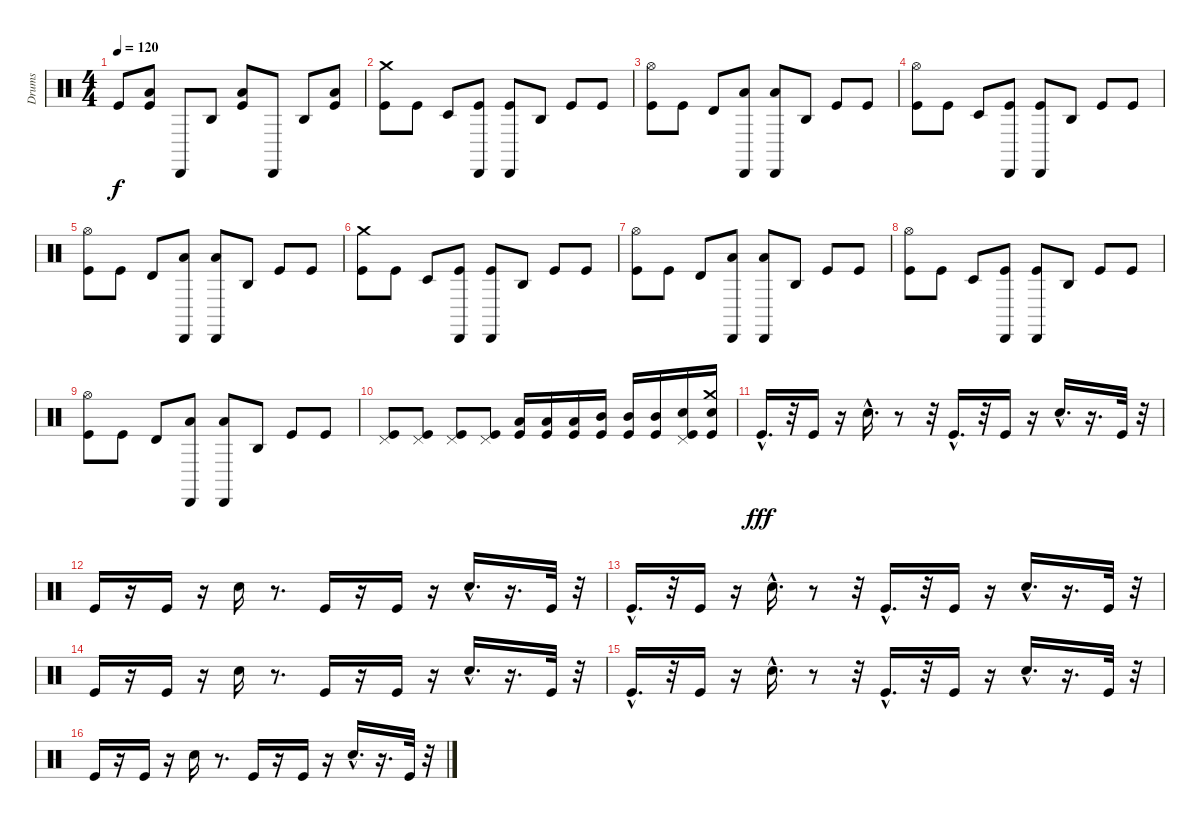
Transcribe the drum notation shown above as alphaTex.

\track ("Drums" "Drums") {instrument percussion}
\staff {score}
\articulation defaults
\ts (4 4)
\tempo 120
\clef neutral
\ks c "Kick (hit)".8{dy f}
("Kick (hit)" "Low Tom (hit)").8 "Cabasa (hit)".8 "Agogo high (hit)".8 ("Kick (hit)" "Low Tom (hit)").8 "Cabasa (hit)".8 "Agogo high (hit)".8 ("Kick (hit)" "Low Tom (hit)").8 |
("Kick (hit)" "Crash medium (hit)").8 "Kick (hit)".8 "Timbale low (hit)".8 ("Cabasa (hit)" "Kick (hit)").8 ("Cabasa (hit)" "Kick (hit)").8 "Agogo high (hit)".8 "Kick (hit)".8 "Kick (hit)".8 |
("Kick (hit)" "Hi-Hat (open)").8 "Kick (hit)".8 "Timbale high (hit)".8 ("Cabasa (hit)" "Low Tom (hit)").8 ("Cabasa (hit)" "Low Tom (hit)").8 "Agogo high (hit)".8 "Kick (hit)".8 "Kick (hit)".8 |
("Kick (hit)" "Hi-Hat (open)").8 "Kick (hit)".8 "Timbale low (hit)".8 ("Cabasa (hit)" "Kick (hit)").8 ("Cabasa (hit)" "Kick (hit)").8 "Agogo high (hit)".8 "Kick (hit)".8 "Kick (hit)".8 |
("Kick (hit)" "Hi-Hat (open)").8 "Kick (hit)".8 "Timbale high (hit)".8 ("Cabasa (hit)" "Low Tom (hit)").8 ("Cabasa (hit)" "Low Tom (hit)").8 "Agogo high (hit)".8 "Kick (hit)".8 "Kick (hit)".8 |
("Kick (hit)" "Crash medium (hit)").8 "Kick (hit)".8 "Timbale low (hit)".8 ("Cabasa (hit)" "Kick (hit)").8 ("Cabasa (hit)" "Kick (hit)").8 "Agogo high (hit)".8 "Kick (hit)".8 "Kick (hit)".8 |
("Kick (hit)" "Hi-Hat (open)").8 "Kick (hit)".8 "Timbale high (hit)".8 ("Cabasa (hit)" "Low Tom (hit)").8 ("Cabasa (hit)" "Low Tom (hit)").8 "Agogo high (hit)".8 "Kick (hit)".8 "Kick (hit)".8 |
("Kick (hit)" "Hi-Hat (open)").8 "Kick (hit)".8 "Timbale low (hit)".8 ("Cabasa (hit)" "Kick (hit)").8 ("Cabasa (hit)" "Kick (hit)").8 "Agogo high (hit)".8 "Kick (hit)".8 "Kick (hit)".8 |
("Kick (hit)" "Hi-Hat (open)").8 "Kick (hit)".8 "Timbale high (hit)".8 ("Cabasa (hit)" "Low Tom (hit)").8 ("Cabasa (hit)" "Low Tom (hit)").8 "Agogo high (hit)".8 "Kick (hit)".8 "Kick (hit)".8 |
("Kick (hit)" "Pedal Hi-Hat (hit)").8 ("Kick (hit)" "Pedal Hi-Hat (hit)").8 ("Kick (hit)" "Pedal Hi-Hat (hit)").8 ("Kick (hit)" "Pedal Hi-Hat (hit)").8 ("Kick (hit)" "Low Tom (hit)").16 ("Kick (hit)" "Low Tom (hit)").16 ("Kick (hit)" "Low Tom (hit)").16 ("Kick (hit)" "Mid Tom (hit)").16 ("Kick (hit)" "Mid Tom (hit)").16 ("Kick (hit)" "Mid Tom (hit)").16 ("Kick (hit)" "Snare (hit) 2" "Pedal Hi-Hat (hit)").16 ("Kick (hit)" "Snare (hit) 2" "Crash medium (hit)").16 |
"Kick (hit)"{hac}.16{d dy fff} r.32 "Kick (hit)".16 r.16 "Electric Snare (hit)"{hac}.16{d} r.8 r.32 "Kick (hit)"{hac}.16{d} r.32 "Kick (hit)".16 r.16 "Electric Snare (hit)"{hac}.16{d} r.16{d} "Kick (hit)".32 r.32 |
"Kick (hit)".16 r.16 "Kick (hit)".16 r.16 "Electric Snare (hit)".16 r.8{d} "Kick (hit)".16 r.16 "Kick (hit)".16 r.16 "Electric Snare (hit)"{hac}.16{d} r.16{d} "Kick (hit)".32 r.32 |
"Kick (hit)"{hac}.16{d} r.32 "Kick (hit)".16 r.16 "Electric Snare (hit)"{hac}.16{d} r.8 r.32 "Kick (hit)"{hac}.16{d} r.32 "Kick (hit)".16 r.16 "Electric Snare (hit)"{hac}.16{d} r.16{d} "Kick (hit)".32 r.32 |
"Kick (hit)".16 r.16 "Kick (hit)".16 r.16 "Electric Snare (hit)".16 r.8{d} "Kick (hit)".16 r.16 "Kick (hit)".16 r.16 "Electric Snare (hit)"{hac}.16{d} r.16{d} "Kick (hit)".32 r.32 |
"Kick (hit)"{hac}.16{d} r.32 "Kick (hit)".16 r.16 "Electric Snare (hit)"{hac}.16{d} r.8 r.32 "Kick (hit)"{hac}.16{d} r.32 "Kick (hit)".16 r.16 "Electric Snare (hit)"{hac}.16{d} r.16{d} "Kick (hit)".32 r.32 |
"Kick (hit)".16 r.16 "Kick (hit)".16 r.16 "Electric Snare (hit)".16 r.8{d} "Kick (hit)".16 r.16 "Kick (hit)".16 r.16 "Electric Snare (hit)"{hac}.16{d} r.16{d} "Kick (hit)".32 r.32
